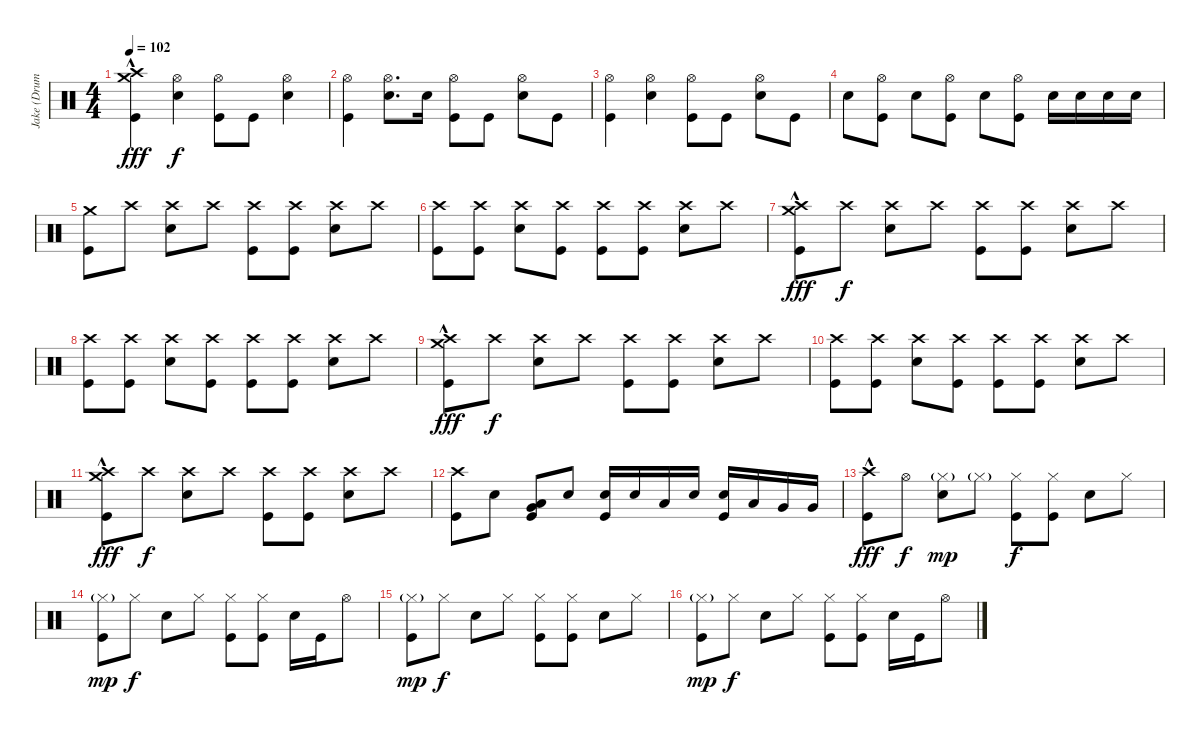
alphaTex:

\track ("Jake (Drums)" "Jake (Drum") {instrument percussion}
\staff {score}
\articulation defaults
\ts (4 4)
\tempo 102
\clef neutral
\ks c
("Crash high (hit)"{hac} "Crash medium (hit)" "Kick (hit)").4{dy fff} ("Hi-Hat (open)" "Snare (hit) 2").4{dy f} ("Hi-Hat (open)" "Kick (hit)").8 "Kick (hit)".8 ("Hi-Hat (open)" "Snare (hit) 2").4 |
("Hi-Hat (open)" "Kick (hit)").4 ("Hi-Hat (open)" "Snare (hit) 2").8{d} "Snare (hit) 2".16 ("Hi-Hat (open)" "Kick (hit)").8 "Kick (hit)".8 ("Hi-Hat (open)" "Snare (hit) 2").8 "Kick (hit)".8 |
("Hi-Hat (open)" "Kick (hit)").4 ("Hi-Hat (open)" "Snare (hit) 2").4 ("Hi-Hat (open)" "Kick (hit)").8 "Kick (hit)".8 ("Hi-Hat (open)" "Snare (hit) 2").8 "Kick (hit)".8 |
"Snare (hit) 2".8 ("Hi-Hat (open)" "Kick (hit)").8 "Snare (hit) 2".8 ("Hi-Hat (open)" "Kick (hit)").8 "Snare (hit) 2".8 ("Hi-Hat (open)" "Kick (hit)").8 "Snare (hit) 2".16 "Snare (hit) 2".16 "Snare (hit) 2".16 "Snare (hit) 2".16 |
("Crash medium (hit)" "Kick (hit)").8 "Crash high (hit)".8 ("Crash high (hit)" "Snare (hit) 2").8 "Crash high (hit)".8 ("Crash high (hit)" "Kick (hit)").8 ("Crash high (hit)" "Kick (hit)").8 ("Crash high (hit)" "Snare (hit) 2").8 "Crash high (hit)".8 |
("Crash high (hit)" "Kick (hit)").8 ("Crash high (hit)" "Kick (hit)").8 ("Crash high (hit)" "Snare (hit) 2").8 ("Crash high (hit)" "Kick (hit)").8 ("Crash high (hit)" "Kick (hit)").8 ("Crash high (hit)" "Kick (hit)").8 ("Crash high (hit)" "Snare (hit) 2").8 "Crash high (hit)".8 |
("Crash high (hit)"{hac} "Crash medium (hit)" "Kick (hit)").8{dy fff} "Crash high (hit)".8{dy f} ("Crash high (hit)" "Snare (hit) 2").8 "Crash high (hit)".8 ("Crash high (hit)" "Kick (hit)").8 ("Crash high (hit)" "Kick (hit)").8 ("Crash high (hit)" "Snare (hit) 2").8 "Crash high (hit)".8 |
("Crash high (hit)" "Kick (hit)").8 ("Crash high (hit)" "Kick (hit)").8 ("Crash high (hit)" "Snare (hit) 2").8 ("Crash high (hit)" "Kick (hit)").8 ("Crash high (hit)" "Kick (hit)").8 ("Crash high (hit)" "Kick (hit)").8 ("Crash high (hit)" "Snare (hit) 2").8 "Crash high (hit)".8 |
("Crash high (hit)"{hac} "Crash medium (hit)" "Kick (hit)").8{dy fff} "Crash high (hit)".8{dy f} ("Crash high (hit)" "Snare (hit) 2").8 "Crash high (hit)".8 ("Crash high (hit)" "Kick (hit)").8 ("Crash high (hit)" "Kick (hit)").8 ("Crash high (hit)" "Snare (hit) 2").8 "Crash high (hit)".8 |
("Crash high (hit)" "Kick (hit)").8 ("Crash high (hit)" "Kick (hit)").8 ("Crash high (hit)" "Snare (hit) 2").8 ("Crash high (hit)" "Kick (hit)").8 ("Crash high (hit)" "Kick (hit)").8 ("Crash high (hit)" "Kick (hit)").8 ("Crash high (hit)" "Snare (hit) 2").8 "Crash high (hit)".8 |
("Crash high (hit)"{hac} "Crash medium (hit)" "Kick (hit)").8{dy fff} "Crash high (hit)".8{dy f} ("Crash high (hit)" "Snare (hit) 2").8 "Crash high (hit)".8 ("Crash high (hit)" "Kick (hit)").8 ("Crash high (hit)" "Kick (hit)").8 ("Crash high (hit)" "Snare (hit) 2").8 "Crash high (hit)".8 |
("Crash high (hit)" "Kick (hit)").8 "Snare (hit) 2".8 ("Low Tom (hit)" "Very Low Tom (hit)" "Kick (hit)").8 "Snare (hit) 2".8 ("Snare (hit) 2" "Kick (hit)").16 "Snare (hit) 2".16 "Low Tom (hit)".16 "Snare (hit) 2".16 ("Snare (hit) 2" "Kick (hit)").16 "Low Tom (hit)".16 "Very Low Tom (hit)".16 "Very Low Tom (hit)".16 |
("Crash high (hit)"{hac} "Kick (hit)").8{dy fff} "Hi-Hat (open)".8{dy f} ("Hi-Hat (closed)"{g} "Snare (hit) 2").8{dy mp} "Hi-Hat (closed)"{g}.8 ("Hi-Hat (closed)" "Kick (hit)").8{dy f} ("Hi-Hat (closed)" "Kick (hit)").8 "Snare (hit) 2".8 "Hi-Hat (closed)".8 |
("Hi-Hat (closed)"{g} "Kick (hit)").8{dy mp} "Hi-Hat (closed)".8{dy f} "Snare (hit) 2".8 "Hi-Hat (closed)".8 ("Hi-Hat (closed)" "Kick (hit)").8 ("Hi-Hat (closed)" "Kick (hit)").8 "Snare (hit) 2".16 "Kick (hit)".16 "Hi-Hat (open)".8 |
("Hi-Hat (closed)"{g} "Kick (hit)").8{dy mp} "Hi-Hat (closed)".8{dy f} "Snare (hit) 2".8 "Hi-Hat (closed)".8 ("Hi-Hat (closed)" "Kick (hit)").8 ("Hi-Hat (closed)" "Kick (hit)").8 "Snare (hit) 2".8 "Hi-Hat (closed)".8 |
("Hi-Hat (closed)"{g} "Kick (hit)").8{dy mp} "Hi-Hat (closed)".8{dy f} "Snare (hit) 2".8 "Hi-Hat (closed)".8 ("Hi-Hat (closed)" "Kick (hit)").8 ("Hi-Hat (closed)" "Kick (hit)").8 "Snare (hit) 2".16 "Kick (hit)".16 "Hi-Hat (open)".8
